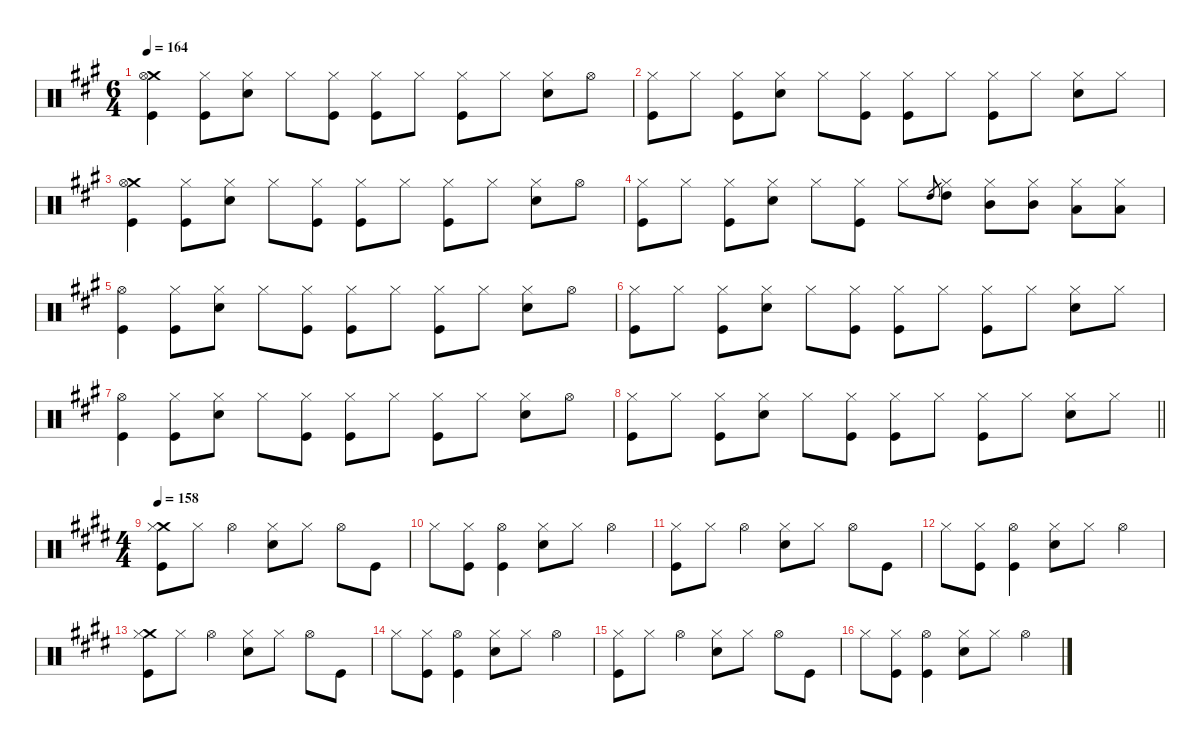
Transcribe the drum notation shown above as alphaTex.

\defaultSystemsLayout 4
\hideDynamics
\bracketExtendMode nobrackets
\singleTrackTrackNamePolicy hidden
\multiTrackTrackNamePolicy hidden
\firstSystemTrackNameMode fullname
\firstSystemTrackNameOrientation horizontal
\otherSystemsTrackNameOrientation horizontal
\track ("Drums" "drm.") {instrument percussion}
\staff {score}
\articulation defaults
\ts (6 4)
\tempo 164
\clef neutral
\ks f#minor
("Crash medium (hit)"{acc forcenatural} "Hi-Hat (open)"{acc forcenatural} "Kick (hit)"{acc forcenatural}).4{dy f beam Down} ("Hi-Hat (closed)"{acc forcenatural} "Kick (hit)"{acc forcenatural}).8{beam Down} ("Hi-Hat (closed)"{acc forcenatural} "Snare (hit) 2"{acc forcenatural}).8{beam Down} "Hi-Hat (closed)"{acc forcenatural}.8{beam Down} ("Hi-Hat (closed)"{acc forcenatural} "Kick (hit)"{acc forcenatural}).8{beam Down} ("Hi-Hat (closed)"{acc forcenatural} "Kick (hit)"{acc forcenatural}).8{beam Down} "Hi-Hat (closed)"{acc forcenatural}.8{beam Down} ("Hi-Hat (closed)"{acc forcenatural} "Kick (hit)"{acc forcenatural}).8{beam Down} "Hi-Hat (closed)"{acc forcenatural}.8{beam Down} ("Hi-Hat (closed)"{acc forcenatural} "Snare (hit) 2"{acc forcenatural}).8{beam Down} "Hi-Hat (open)"{acc forcenatural}.8{beam Down} |
("Hi-Hat (closed)"{acc forcenatural} "Kick (hit)"{acc forcenatural}).8{beam Down} "Hi-Hat (closed)"{acc forcenatural}.8{beam Down} ("Hi-Hat (closed)"{acc forcenatural} "Kick (hit)"{acc forcenatural}).8{beam Down} ("Hi-Hat (closed)"{acc forcenatural} "Snare (hit) 2"{acc forcenatural}).8{beam Down} "Hi-Hat (closed)"{acc forcenatural}.8{beam Down} ("Hi-Hat (closed)"{acc forcenatural} "Kick (hit)"{acc forcenatural}).8{beam Down} ("Hi-Hat (closed)"{acc forcenatural} "Kick (hit)"{acc forcenatural}).8{beam Down} "Hi-Hat (closed)"{acc forcenatural}.8{beam Down} ("Hi-Hat (closed)"{acc forcenatural} "Kick (hit)"{acc forcenatural}).8{beam Down} "Hi-Hat (closed)"{acc forcenatural}.8{beam Down} ("Hi-Hat (closed)"{acc forcenatural} "Snare (hit) 2"{acc forcenatural}).8{beam Down} "Hi-Hat (closed)"{acc forcenatural}.8{beam Down} |
("Crash medium (hit)"{acc forcenatural} "Hi-Hat (open)"{acc forcenatural} "Kick (hit)"{acc forcenatural}).4{beam Down} ("Hi-Hat (closed)"{acc forcenatural} "Kick (hit)"{acc forcenatural}).8{beam Down} ("Hi-Hat (closed)"{acc forcenatural} "Snare (hit) 2"{acc forcenatural}).8{beam Down} "Hi-Hat (closed)"{acc forcenatural}.8{beam Down} ("Hi-Hat (closed)"{acc forcenatural} "Kick (hit)"{acc forcenatural}).8{beam Down} ("Hi-Hat (closed)"{acc forcenatural} "Kick (hit)"{acc forcenatural}).8{beam Down} "Hi-Hat (closed)"{acc forcenatural}.8{beam Down} ("Hi-Hat (closed)"{acc forcenatural} "Kick (hit)"{acc forcenatural}).8{beam Down} "Hi-Hat (closed)"{acc forcenatural}.8{beam Down} ("Hi-Hat (closed)"{acc forcenatural} "Snare (hit) 2"{acc forcenatural}).8{beam Down} "Hi-Hat (open)"{acc forcenatural}.8{beam Down} |
("Hi-Hat (closed)"{acc forcenatural} "Kick (hit)"{acc forcenatural}).8{beam Down} "Hi-Hat (closed)"{acc forcenatural}.8{beam Down} ("Hi-Hat (closed)"{acc forcenatural} "Kick (hit)"{acc forcenatural}).8{beam Down} ("Hi-Hat (closed)"{acc forcenatural} "Snare (hit) 2"{acc forcenatural}).8{beam Down} "Hi-Hat (closed)"{acc forcenatural}.8{beam Down} ("Hi-Hat (closed)"{acc forcenatural} "Kick (hit)"{acc forcenatural}).8{beam Down} "Hi-Hat (closed)"{acc forcenatural}.8{beam Down} "High Tom (hit)"{acc forcenatural}.8{gr dy mf beam Up} ("Hi-Hat (closed)"{acc forcenatural} "High Tom (hit)"{acc forcenatural}).8{dy f beam Down} ("Hi-Hat (closed)"{acc forcenatural} "Mid Tom (hit)"{acc forcenatural}).8{beam Down} ("Hi-Hat (closed)"{acc forcenatural} "Mid Tom (hit)"{acc forcenatural}).8{beam Down} ("Hi-Hat (closed)"{acc forcenatural} "Low Tom (hit)"{acc forcenatural}).8{beam Down} ("Hi-Hat (closed)"{acc forcenatural} "Low Tom (hit)"{acc forcenatural}).8{beam Down} |
("Hi-Hat (open)"{acc forcenatural} "Kick (hit)"{acc forcenatural}).4{beam Down} ("Hi-Hat (closed)"{acc forcenatural} "Kick (hit)"{acc forcenatural}).8{beam Down} ("Hi-Hat (closed)"{acc forcenatural} "Snare (hit) 2"{acc forcenatural}).8{beam Down} "Hi-Hat (closed)"{acc forcenatural}.8{beam Down} ("Hi-Hat (closed)"{acc forcenatural} "Kick (hit)"{acc forcenatural}).8{beam Down} ("Hi-Hat (closed)"{acc forcenatural} "Kick (hit)"{acc forcenatural}).8{beam Down} "Hi-Hat (closed)"{acc forcenatural}.8{beam Down} ("Hi-Hat (closed)"{acc forcenatural} "Kick (hit)"{acc forcenatural}).8{beam Down} "Hi-Hat (closed)"{acc forcenatural}.8{beam Down} ("Hi-Hat (closed)"{acc forcenatural} "Snare (hit) 2"{acc forcenatural}).8{beam Down} "Hi-Hat (open)"{acc forcenatural}.8{beam Down} |
("Hi-Hat (closed)"{acc forcenatural} "Kick (hit)"{acc forcenatural}).8{beam Down} "Hi-Hat (closed)"{acc forcenatural}.8{beam Down} ("Hi-Hat (closed)"{acc forcenatural} "Kick (hit)"{acc forcenatural}).8{beam Down} ("Hi-Hat (closed)"{acc forcenatural} "Snare (hit) 2"{acc forcenatural}).8{beam Down} "Hi-Hat (closed)"{acc forcenatural}.8{beam Down} ("Hi-Hat (closed)"{acc forcenatural} "Kick (hit)"{acc forcenatural}).8{beam Down} ("Hi-Hat (closed)"{acc forcenatural} "Kick (hit)"{acc forcenatural}).8{beam Down} "Hi-Hat (closed)"{acc forcenatural}.8{beam Down} ("Hi-Hat (closed)"{acc forcenatural} "Kick (hit)"{acc forcenatural}).8{beam Down} "Hi-Hat (closed)"{acc forcenatural}.8{beam Down} ("Hi-Hat (closed)"{acc forcenatural} "Snare (hit) 2"{acc forcenatural}).8{beam Down} "Hi-Hat (closed)"{acc forcenatural}.8{beam Down} |
("Hi-Hat (open)"{acc forcenatural} "Kick (hit)"{acc forcenatural}).4{beam Down} ("Hi-Hat (closed)"{acc forcenatural} "Kick (hit)"{acc forcenatural}).8{beam Down} ("Hi-Hat (closed)"{acc forcenatural} "Snare (hit) 2"{acc forcenatural}).8{beam Down} "Hi-Hat (closed)"{acc forcenatural}.8{beam Down} ("Hi-Hat (closed)"{acc forcenatural} "Kick (hit)"{acc forcenatural}).8{beam Down} ("Hi-Hat (closed)"{acc forcenatural} "Kick (hit)"{acc forcenatural}).8{beam Down} "Hi-Hat (closed)"{acc forcenatural}.8{beam Down} ("Hi-Hat (closed)"{acc forcenatural} "Kick (hit)"{acc forcenatural}).8{beam Down} "Hi-Hat (closed)"{acc forcenatural}.8{beam Down} ("Hi-Hat (closed)"{acc forcenatural} "Snare (hit) 2"{acc forcenatural}).8{beam Down} "Hi-Hat (open)"{acc forcenatural}.8{beam Down} |
\barLineRight lightlight
("Hi-Hat (closed)"{acc forcenatural} "Kick (hit)"{acc forcenatural}).8{beam Down} "Hi-Hat (closed)"{acc forcenatural}.8{beam Down} ("Hi-Hat (closed)"{acc forcenatural} "Kick (hit)"{acc forcenatural}).8{beam Down} ("Hi-Hat (closed)"{acc forcenatural} "Snare (hit) 2"{acc forcenatural}).8{beam Down} "Hi-Hat (closed)"{acc forcenatural}.8{beam Down} ("Hi-Hat (closed)"{acc forcenatural} "Kick (hit)"{acc forcenatural}).8{beam Down} ("Hi-Hat (closed)"{acc forcenatural} "Kick (hit)"{acc forcenatural}).8{beam Down} "Hi-Hat (closed)"{acc forcenatural}.8{beam Down} ("Hi-Hat (closed)"{acc forcenatural} "Kick (hit)"{acc forcenatural}).8{beam Down} "Hi-Hat (closed)"{acc forcenatural}.8{beam Down} ("Hi-Hat (closed)"{acc forcenatural} "Snare (hit) 2"{acc forcenatural}).8{beam Down} "Hi-Hat (closed)"{acc forcenatural}.8{beam Down} |
\ts (4 4)
\beaming (8 2 2 2 2)
\tempo 158
\ks c#minor
("Crash medium (hit)"{acc forcenatural} "Hi-Hat (closed)"{acc forcenatural} "Kick (hit)"{acc forcenatural}).8{beam Down} "Hi-Hat (closed)"{acc forcenatural}.8{dy mf beam Down} "Hi-Hat (open)"{acc forcenatural}.4{dy f beam Down} ("Hi-Hat (closed)"{acc forcenatural} "Snare (hit) 2"{acc forcenatural}).8{beam Down} "Hi-Hat (closed)"{acc forcenatural}.8{dy mf beam Down} "Hi-Hat (open)"{acc forcenatural}.8{dy f beam Down} "Kick (hit)"{acc forcenatural}.8{beam Down} |
"Hi-Hat (closed)"{acc forcenatural}.8{beam Down} ("Hi-Hat (closed)"{acc forcenatural} "Kick (hit)"{acc forcenatural}).8{dy mf beam Down} ("Hi-Hat (open)"{acc forcenatural} "Kick (hit)"{acc forcenatural}).4{dy f beam Down} ("Hi-Hat (closed)"{acc forcenatural} "Snare (hit) 2"{acc forcenatural}).8{beam Down} "Hi-Hat (closed)"{acc forcenatural}.8{dy mf beam Down} "Hi-Hat (open)"{acc forcenatural}.4{dy f beam Down} |
("Hi-Hat (closed)"{acc forcenatural} "Kick (hit)"{acc forcenatural}).8{beam Down} "Hi-Hat (closed)"{acc forcenatural}.8{dy mf beam Down} "Hi-Hat (open)"{acc forcenatural}.4{dy f beam Down} ("Hi-Hat (closed)"{acc forcenatural} "Snare (hit) 2"{acc forcenatural}).8{beam Down} "Hi-Hat (closed)"{acc forcenatural}.8{dy mf beam Down} "Hi-Hat (open)"{acc forcenatural}.8{dy f beam Down} "Kick (hit)"{acc forcenatural}.8{beam Down} |
"Hi-Hat (closed)"{acc forcenatural}.8{beam Down} ("Hi-Hat (closed)"{acc forcenatural} "Kick (hit)"{acc forcenatural}).8{dy mf beam Down} ("Hi-Hat (open)"{acc forcenatural} "Kick (hit)"{acc forcenatural}).4{dy f beam Down} ("Hi-Hat (closed)"{acc forcenatural} "Snare (hit) 2"{acc forcenatural}).8{beam Down} "Hi-Hat (closed)"{acc forcenatural}.8{dy mf beam Down} "Hi-Hat (open)"{acc forcenatural}.4{dy f beam Down} |
("Crash medium (hit)"{acc forcenatural} "Hi-Hat (closed)"{acc forcenatural} "Kick (hit)"{acc forcenatural}).8{beam Down} "Hi-Hat (closed)"{acc forcenatural}.8{dy mf beam Down} "Hi-Hat (open)"{acc forcenatural}.4{dy f beam Down} ("Hi-Hat (closed)"{acc forcenatural} "Snare (hit) 2"{acc forcenatural}).8{beam Down} "Hi-Hat (closed)"{acc forcenatural}.8{dy mf beam Down} "Hi-Hat (open)"{acc forcenatural}.8{dy f beam Down} "Kick (hit)"{acc forcenatural}.8{beam Down} |
"Hi-Hat (closed)"{acc forcenatural}.8{beam Down} ("Hi-Hat (closed)"{acc forcenatural} "Kick (hit)"{acc forcenatural}).8{dy mf beam Down} ("Hi-Hat (open)"{acc forcenatural} "Kick (hit)"{acc forcenatural}).4{dy f beam Down} ("Hi-Hat (closed)"{acc forcenatural} "Snare (hit) 2"{acc forcenatural}).8{beam Down} "Hi-Hat (closed)"{acc forcenatural}.8{dy mf beam Down} "Hi-Hat (open)"{acc forcenatural}.4{dy f beam Down} |
("Hi-Hat (closed)"{acc forcenatural} "Kick (hit)"{acc forcenatural}).8{beam Down} "Hi-Hat (closed)"{acc forcenatural}.8{dy mf beam Down} "Hi-Hat (open)"{acc forcenatural}.4{dy f beam Down} ("Hi-Hat (closed)"{acc forcenatural} "Snare (hit) 2"{acc forcenatural}).8{beam Down} "Hi-Hat (closed)"{acc forcenatural}.8{dy mf beam Down} "Hi-Hat (open)"{acc forcenatural}.8{dy f beam Down} "Kick (hit)"{acc forcenatural}.8{beam Down} |
"Hi-Hat (closed)"{acc forcenatural}.8{beam Down} ("Hi-Hat (closed)"{acc forcenatural} "Kick (hit)"{acc forcenatural}).8{dy mf beam Down} ("Hi-Hat (open)"{acc forcenatural} "Kick (hit)"{acc forcenatural}).4{dy f beam Down} ("Hi-Hat (closed)"{acc forcenatural} "Snare (hit) 2"{acc forcenatural}).8{beam Down} "Hi-Hat (closed)"{acc forcenatural}.8{dy mf beam Down} "Hi-Hat (open)"{acc forcenatural}.4{dy f beam Down}
